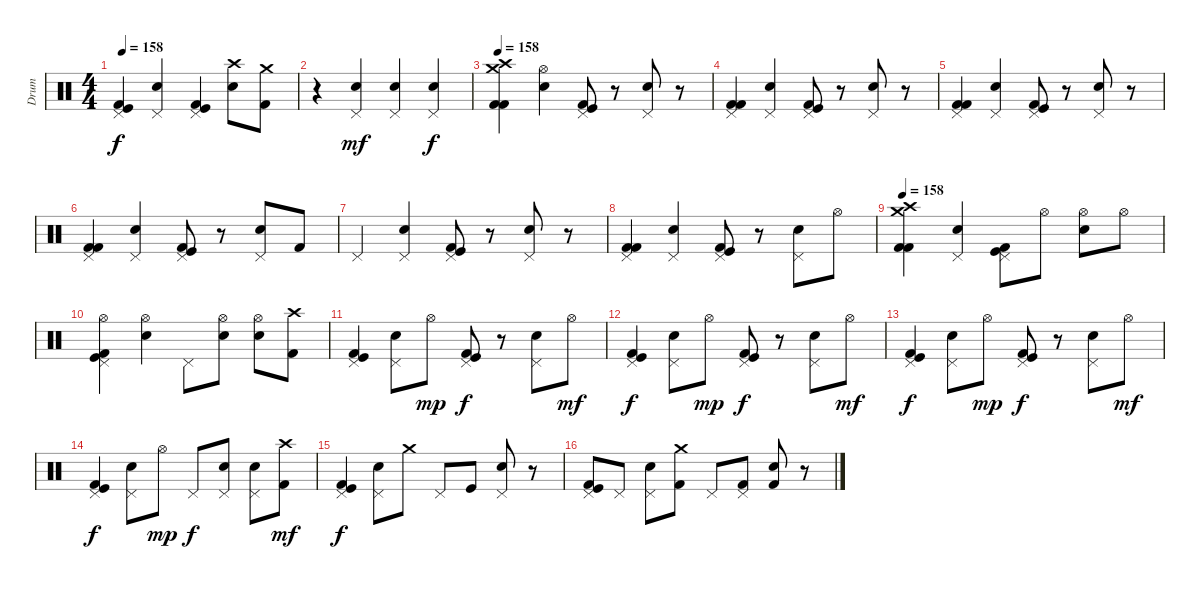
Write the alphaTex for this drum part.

\track ("Drum" "Drum") {instrument percussion}
\staff {score}
\articulation defaults
\ts (4 4)
\tempo 158
\clef neutral
\ks c
("Pedal Hi-Hat (hit)" "Kick (hit) 2" "Kick (hit)").4{dy f} ("Electric Snare (hit)" "Pedal Hi-Hat (hit)").4 ("Kick (hit) 2" "Kick (hit)" "Pedal Hi-Hat (hit)").4 ("Crash high (hit)" "Electric Snare (hit)").8 ("Crash medium (hit)" "Kick (hit) 2").8 |
r.4 ("Pedal Hi-Hat (hit)" "Electric Snare (hit)").4{dy mf} ("Pedal Hi-Hat (hit)" "Electric Snare (hit)").4 ("Pedal Hi-Hat (hit)" "Electric Snare (hit)").4{dy f} |
\tempo 158
("Crash high (hit)" "Kick (hit) 2" "Kick (hit) 2" "Crash medium (hit)").4 ("Hi-Hat (open)" "Electric Snare (hit)").4 ("Pedal Hi-Hat (hit)" "Kick (hit) 2" "Kick (hit)").8 r.8 ("Pedal Hi-Hat (hit)" "Electric Snare (hit)").8 r.8 |
("Pedal Hi-Hat (hit)" "Kick (hit) 2" "Kick (hit) 2").4 ("Pedal Hi-Hat (hit)" "Electric Snare (hit)").4 ("Pedal Hi-Hat (hit)" "Kick (hit) 2" "Kick (hit)").8 r.8 ("Pedal Hi-Hat (hit)" "Electric Snare (hit)").8 r.8 |
("Pedal Hi-Hat (hit)" "Kick (hit) 2" "Kick (hit) 2").4 ("Pedal Hi-Hat (hit)" "Electric Snare (hit)").4 ("Pedal Hi-Hat (hit)" "Kick (hit) 2" "Kick (hit)").8 r.8 ("Pedal Hi-Hat (hit)" "Electric Snare (hit)").8 r.8 |
("Pedal Hi-Hat (hit)" "Kick (hit) 2" "Kick (hit) 2").4 ("Pedal Hi-Hat (hit)" "Electric Snare (hit)").4 ("Pedal Hi-Hat (hit)" "Kick (hit) 2" "Kick (hit)").8 r.8 ("Pedal Hi-Hat (hit)" "Electric Snare (hit)").8 "Kick (hit) 2".8 |
"Pedal Hi-Hat (hit)".4 ("Pedal Hi-Hat (hit)" "Electric Snare (hit)").4 ("Pedal Hi-Hat (hit)" "Kick (hit) 2" "Kick (hit)").8 r.8 ("Pedal Hi-Hat (hit)" "Electric Snare (hit)").8 r.8 |
("Pedal Hi-Hat (hit)" "Kick (hit) 2" "Kick (hit) 2").4 ("Pedal Hi-Hat (hit)" "Electric Snare (hit)").4 ("Pedal Hi-Hat (hit)" "Kick (hit) 2" "Kick (hit)").8 r.8 ("Pedal Hi-Hat (hit)" "Electric Snare (hit)").8 "Hi-Hat (open)".8 |
\tempo 158
("Crash high (hit)" "Kick (hit) 2" "Kick (hit) 2" "Crash medium (hit)").4 ("Pedal Hi-Hat (hit)" "Electric Snare (hit)").4 ("Pedal Hi-Hat (hit)" "Kick (hit) 2" "Kick (hit)").8 "Hi-Hat (open)".8 ("Hi-Hat (open)" "Electric Snare (hit)").8 "Hi-Hat (open)".8 |
("Hi-Hat (open)" "Pedal Hi-Hat (hit)" "Kick (hit) 2" "Kick (hit)").4 ("Hi-Hat (open)" "Electric Snare (hit)").4 "Pedal Hi-Hat (hit)".8 ("Hi-Hat (open)" "Electric Snare (hit)").8 ("Hi-Hat (open)" "Electric Snare (hit)").8 ("Crash high (hit)" "Kick (hit) 2").8 |
("Pedal Hi-Hat (hit)" "Kick (hit)" "Kick (hit) 2").4 ("Electric Snare (hit)" "Pedal Hi-Hat (hit)").8 "Hi-Hat (open)".8{dy mp} ("Kick (hit) 2" "Kick (hit)" "Pedal Hi-Hat (hit)").8{dy f} r.8 ("Pedal Hi-Hat (hit)" "Electric Snare (hit)").8 "Hi-Hat (open)".8{dy mf} |
("Pedal Hi-Hat (hit)" "Kick (hit)" "Kick (hit) 2").4{dy f} ("Electric Snare (hit)" "Pedal Hi-Hat (hit)").8 "Hi-Hat (open)".8{dy mp} ("Kick (hit) 2" "Kick (hit)" "Pedal Hi-Hat (hit)").8{dy f} r.8 ("Pedal Hi-Hat (hit)" "Electric Snare (hit)").8 "Hi-Hat (open)".8{dy mf} |
("Pedal Hi-Hat (hit)" "Kick (hit)" "Kick (hit) 2").4{dy f} ("Electric Snare (hit)" "Pedal Hi-Hat (hit)").8 "Hi-Hat (open)".8{dy mp} ("Kick (hit) 2" "Kick (hit)" "Pedal Hi-Hat (hit)").8{dy f} r.8 ("Pedal Hi-Hat (hit)" "Electric Snare (hit)").8 "Hi-Hat (open)".8{dy mf} |
("Pedal Hi-Hat (hit)" "Kick (hit)" "Kick (hit) 2").4{dy f} ("Electric Snare (hit)" "Pedal Hi-Hat (hit)").8 "Hi-Hat (open)".8{dy mp} "Pedal Hi-Hat (hit)".8{dy f} ("Pedal Hi-Hat (hit)" "Electric Snare (hit)").8 ("Pedal Hi-Hat (hit)" "Electric Snare (hit)").8 ("Crash high (hit)" "Kick (hit) 2").8{dy mf} |
("Kick (hit) 2" "Kick (hit)" "Pedal Hi-Hat (hit)").4{dy f} ("Pedal Hi-Hat (hit)" "Electric Snare (hit)").8 "Crash medium (hit)".8 "Pedal Hi-Hat (hit)".8 "Kick (hit)".8 ("Pedal Hi-Hat (hit)" "Electric Snare (hit)").8 r.8 |
("Pedal Hi-Hat (hit)" "Kick (hit) 2" "Kick (hit)").8 "Pedal Hi-Hat (hit)".8 ("Pedal Hi-Hat (hit)" "Electric Snare (hit)").8 ("Crash medium (hit)" "Kick (hit) 2").8 "Pedal Hi-Hat (hit)".8 ("Pedal Hi-Hat (hit)" "Kick (hit) 2").8 ("Kick (hit) 2" "Electric Snare (hit)").8 r.8
